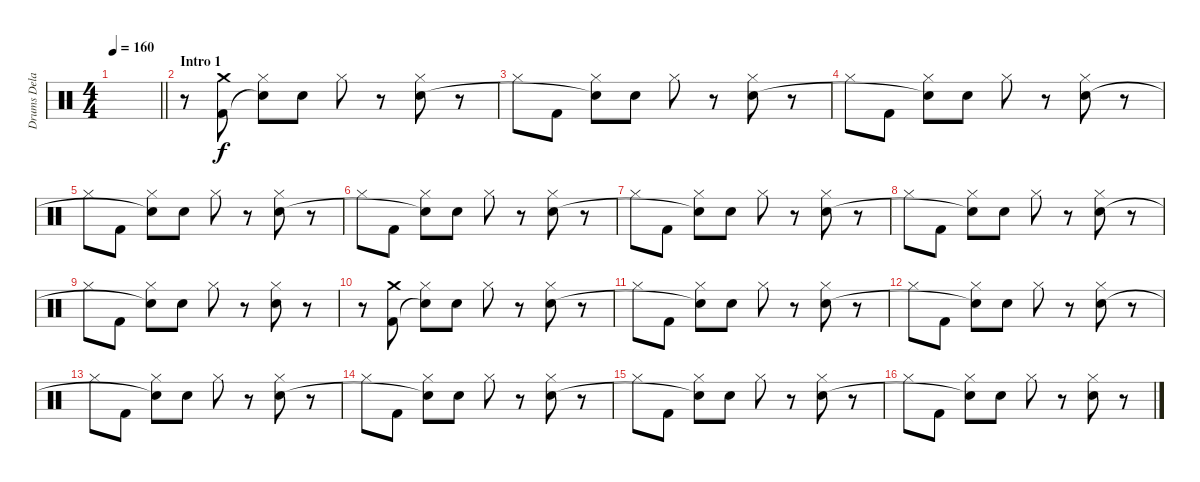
\track ("Drums Delay" "Drums Dela") {instrument percussion}
\staff {score}
\articulation defaults
\ts (4 4)
\tempo 160
\clef neutral
\barLineRight lightlight
\ks c
|
\section ("" "Intro 1")
r.8 ("Crash medium (hit)" "Kick (hit) 2").8 ("Hi-Hat (closed)" "Snare (hit)"{t}).8 "Electric Snare (hit)".8 "Hi-Hat (closed)".8 r.8 ("Hi-Hat (closed)" "Electric Snare (hit)").8 r.8 |
"Hi-Hat (closed)".8 "Kick (hit) 2".8 ("Hi-Hat (closed)" "Snare (hit)"{t}).8 "Electric Snare (hit)".8 "Hi-Hat (closed)".8 r.8 ("Hi-Hat (closed)" "Electric Snare (hit)").8 r.8 |
"Hi-Hat (closed)".8 "Kick (hit) 2".8 ("Hi-Hat (closed)" "Snare (hit)"{t}).8 "Electric Snare (hit)".8 "Hi-Hat (closed)".8 r.8 ("Hi-Hat (closed)" "Electric Snare (hit)").8 r.8 |
"Hi-Hat (closed)".8 "Kick (hit) 2".8 ("Hi-Hat (closed)" "Snare (hit)"{t}).8 "Electric Snare (hit)".8 "Hi-Hat (closed)".8 r.8 ("Hi-Hat (closed)" "Electric Snare (hit)").8 r.8 |
"Hi-Hat (closed)".8 "Kick (hit) 2".8 ("Hi-Hat (closed)" "Snare (hit)"{t}).8 "Electric Snare (hit)".8 "Hi-Hat (closed)".8 r.8 ("Hi-Hat (closed)" "Electric Snare (hit)").8 r.8 |
"Hi-Hat (closed)".8 "Kick (hit) 2".8 ("Hi-Hat (closed)" "Snare (hit)"{t}).8 "Electric Snare (hit)".8 "Hi-Hat (closed)".8 r.8 ("Hi-Hat (closed)" "Electric Snare (hit)").8 r.8 |
"Hi-Hat (closed)".8 "Kick (hit) 2".8 ("Hi-Hat (closed)" "Snare (hit)"{t}).8 "Electric Snare (hit)".8 "Hi-Hat (closed)".8 r.8 ("Hi-Hat (closed)" "Electric Snare (hit)").8 r.8 |
"Hi-Hat (closed)".8 "Kick (hit) 2".8 ("Hi-Hat (closed)" "Snare (hit)"{t}).8 "Electric Snare (hit)".8 "Hi-Hat (closed)".8 r.8 ("Hi-Hat (closed)" "Electric Snare (hit)").8 r.8 |
r.8 ("Crash medium (hit)" "Kick (hit) 2").8 ("Hi-Hat (closed)" "Snare (hit)"{t}).8 "Electric Snare (hit)".8 "Hi-Hat (closed)".8 r.8 ("Hi-Hat (closed)" "Electric Snare (hit)").8 r.8 |
"Hi-Hat (closed)".8 "Kick (hit) 2".8 ("Hi-Hat (closed)" "Snare (hit)"{t}).8 "Electric Snare (hit)".8 "Hi-Hat (closed)".8 r.8 ("Hi-Hat (closed)" "Electric Snare (hit)").8 r.8 |
"Hi-Hat (closed)".8 "Kick (hit) 2".8 ("Hi-Hat (closed)" "Snare (hit)"{t}).8 "Electric Snare (hit)".8 "Hi-Hat (closed)".8 r.8 ("Hi-Hat (closed)" "Electric Snare (hit)").8 r.8 |
"Hi-Hat (closed)".8 "Kick (hit) 2".8 ("Hi-Hat (closed)" "Snare (hit)"{t}).8 "Electric Snare (hit)".8 "Hi-Hat (closed)".8 r.8 ("Hi-Hat (closed)" "Electric Snare (hit)").8 r.8 |
"Hi-Hat (closed)".8 "Kick (hit) 2".8 ("Hi-Hat (closed)" "Snare (hit)"{t}).8 "Electric Snare (hit)".8 "Hi-Hat (closed)".8 r.8 ("Hi-Hat (closed)" "Electric Snare (hit)").8 r.8 |
"Hi-Hat (closed)".8 "Kick (hit) 2".8 ("Hi-Hat (closed)" "Snare (hit)"{t}).8 "Electric Snare (hit)".8 "Hi-Hat (closed)".8 r.8 ("Hi-Hat (closed)" "Electric Snare (hit)").8 r.8 |
"Hi-Hat (closed)".8 "Kick (hit) 2".8 ("Hi-Hat (closed)" "Snare (hit)"{t}).8 "Electric Snare (hit)".8 "Hi-Hat (closed)".8 r.8 ("Hi-Hat (closed)" "Electric Snare (hit)").8 r.8
